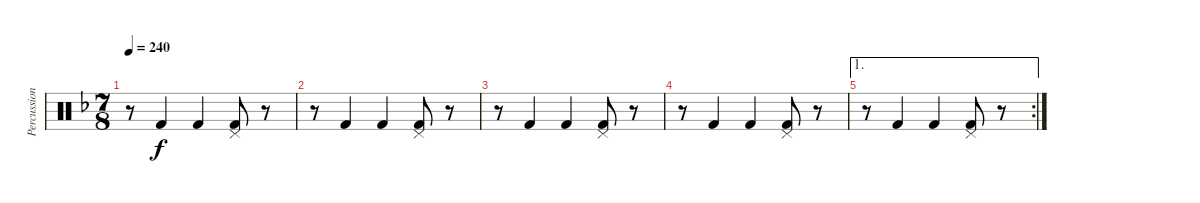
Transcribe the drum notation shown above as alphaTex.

\track ("Percussion" "Percussion") {instrument percussion}
\staff {score}
\articulation defaults
\ts (7 8)
\tempo 240
\clef neutral
\ks f
r.8{dy f} "Kick (hit) 2".4 "Kick (hit) 2".4 ("Pedal Hi-Hat (hit)" "Kick (hit) 2").8 r.8 |
r.8 "Kick (hit) 2".4 "Kick (hit) 2".4 ("Pedal Hi-Hat (hit)" "Kick (hit) 2").8 r.8 |
r.8 "Kick (hit) 2".4 "Kick (hit) 2".4 ("Pedal Hi-Hat (hit)" "Kick (hit) 2").8 r.8 |
r.8 "Kick (hit) 2".4 "Kick (hit) 2".4 ("Pedal Hi-Hat (hit)" "Kick (hit) 2").8 r.8 |
\ae 1
\rc 2
r.8 "Kick (hit) 2".4 "Kick (hit) 2".4 ("Pedal Hi-Hat (hit)" "Kick (hit) 2").8 r.8
